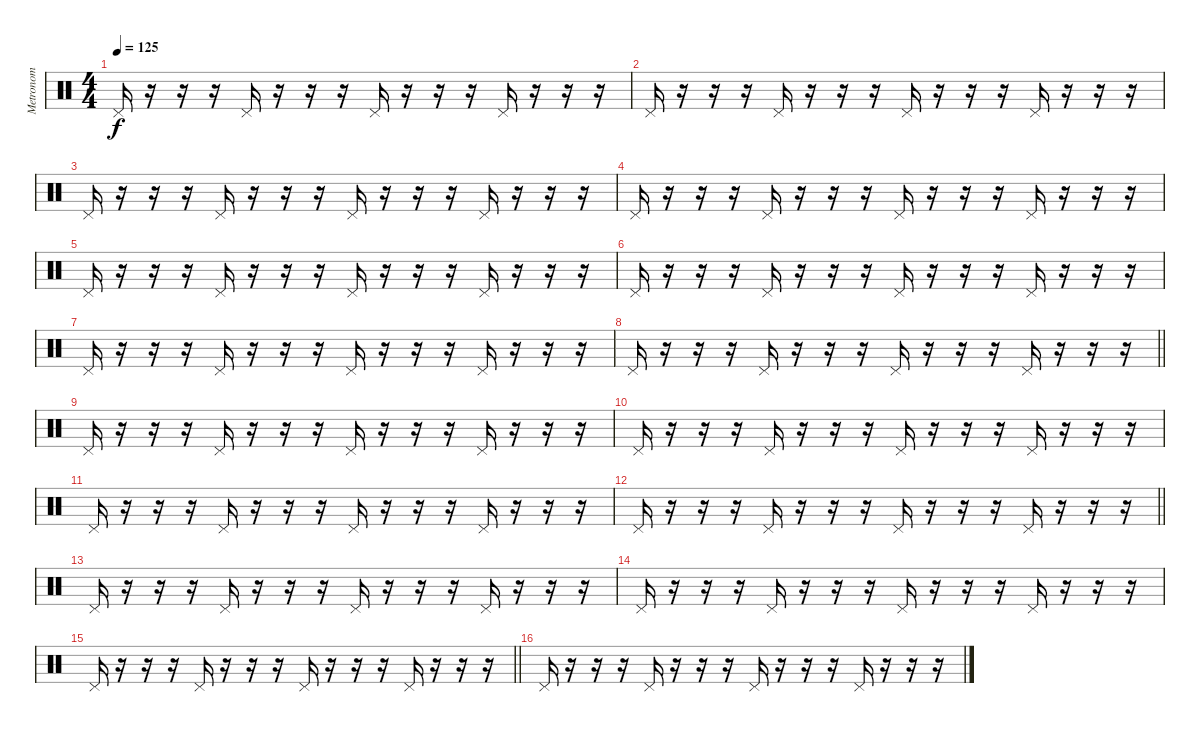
\track ("Metronom" "Metronom") {instrument percussion}
\staff {score}
\articulation defaults
\ts (4 4)
\section ("" "")
\tempo 125
\clef neutral
\ks c "Pedal Hi-Hat (hit)".16{dy f}
r.16 r.16 r.16 "Pedal Hi-Hat (hit)".16 r.16 r.16 r.16 "Pedal Hi-Hat (hit)".16 r.16 r.16 r.16 "Pedal Hi-Hat (hit)".16 r.16 r.16 r.16 |
"Pedal Hi-Hat (hit)".16 r.16 r.16 r.16 "Pedal Hi-Hat (hit)".16 r.16 r.16 r.16 "Pedal Hi-Hat (hit)".16 r.16 r.16 r.16 "Pedal Hi-Hat (hit)".16 r.16 r.16 r.16 |
"Pedal Hi-Hat (hit)".16 r.16 r.16 r.16 "Pedal Hi-Hat (hit)".16 r.16 r.16 r.16 "Pedal Hi-Hat (hit)".16 r.16 r.16 r.16 "Pedal Hi-Hat (hit)".16 r.16 r.16 r.16 |
"Pedal Hi-Hat (hit)".16 r.16 r.16 r.16 "Pedal Hi-Hat (hit)".16 r.16 r.16 r.16 "Pedal Hi-Hat (hit)".16 r.16 r.16 r.16 "Pedal Hi-Hat (hit)".16 r.16 r.16 r.16 |
"Pedal Hi-Hat (hit)".16 r.16 r.16 r.16 "Pedal Hi-Hat (hit)".16 r.16 r.16 r.16 "Pedal Hi-Hat (hit)".16 r.16 r.16 r.16 "Pedal Hi-Hat (hit)".16 r.16 r.16 r.16 |
"Pedal Hi-Hat (hit)".16 r.16 r.16 r.16 "Pedal Hi-Hat (hit)".16 r.16 r.16 r.16 "Pedal Hi-Hat (hit)".16 r.16 r.16 r.16 "Pedal Hi-Hat (hit)".16 r.16 r.16 r.16 |
"Pedal Hi-Hat (hit)".16 r.16 r.16 r.16 "Pedal Hi-Hat (hit)".16 r.16 r.16 r.16 "Pedal Hi-Hat (hit)".16 r.16 r.16 r.16 "Pedal Hi-Hat (hit)".16 r.16 r.16 r.16 |
\barLineRight lightlight "Pedal Hi-Hat (hit)".16
r.16 r.16 r.16 "Pedal Hi-Hat (hit)".16 r.16 r.16 r.16 "Pedal Hi-Hat (hit)".16 r.16 r.16 r.16 "Pedal Hi-Hat (hit)".16 r.16 r.16 r.16 |
\section ("" "")
"Pedal Hi-Hat (hit)".16 r.16 r.16 r.16 "Pedal Hi-Hat (hit)".16 r.16 r.16 r.16 "Pedal Hi-Hat (hit)".16 r.16 r.16 r.16 "Pedal Hi-Hat (hit)".16 r.16 r.16 r.16 |
"Pedal Hi-Hat (hit)".16 r.16 r.16 r.16 "Pedal Hi-Hat (hit)".16 r.16 r.16 r.16 "Pedal Hi-Hat (hit)".16 r.16 r.16 r.16 "Pedal Hi-Hat (hit)".16 r.16 r.16 r.16 |
"Pedal Hi-Hat (hit)".16 r.16 r.16 r.16 "Pedal Hi-Hat (hit)".16 r.16 r.16 r.16 "Pedal Hi-Hat (hit)".16 r.16 r.16 r.16 "Pedal Hi-Hat (hit)".16 r.16 r.16 r.16 |
\barLineRight lightlight "Pedal Hi-Hat (hit)".16
r.16 r.16 r.16 "Pedal Hi-Hat (hit)".16 r.16 r.16 r.16 "Pedal Hi-Hat (hit)".16 r.16 r.16 r.16 "Pedal Hi-Hat (hit)".16 r.16 r.16 r.16 |
\section ("" "")
"Pedal Hi-Hat (hit)".16 r.16 r.16 r.16 "Pedal Hi-Hat (hit)".16 r.16 r.16 r.16 "Pedal Hi-Hat (hit)".16 r.16 r.16 r.16 "Pedal Hi-Hat (hit)".16 r.16 r.16 r.16 |
"Pedal Hi-Hat (hit)".16 r.16 r.16 r.16 "Pedal Hi-Hat (hit)".16 r.16 r.16 r.16 "Pedal Hi-Hat (hit)".16 r.16 r.16 r.16 "Pedal Hi-Hat (hit)".16 r.16 r.16 r.16 |
\barLineRight lightlight "Pedal Hi-Hat (hit)".16
r.16 r.16 r.16 "Pedal Hi-Hat (hit)".16 r.16 r.16 r.16 "Pedal Hi-Hat (hit)".16 r.16 r.16 r.16 "Pedal Hi-Hat (hit)".16 r.16 r.16 r.16 |
"Pedal Hi-Hat (hit)".16 r.16 r.16 r.16 "Pedal Hi-Hat (hit)".16 r.16 r.16 r.16 "Pedal Hi-Hat (hit)".16 r.16 r.16 r.16 "Pedal Hi-Hat (hit)".16 r.16 r.16 r.16
